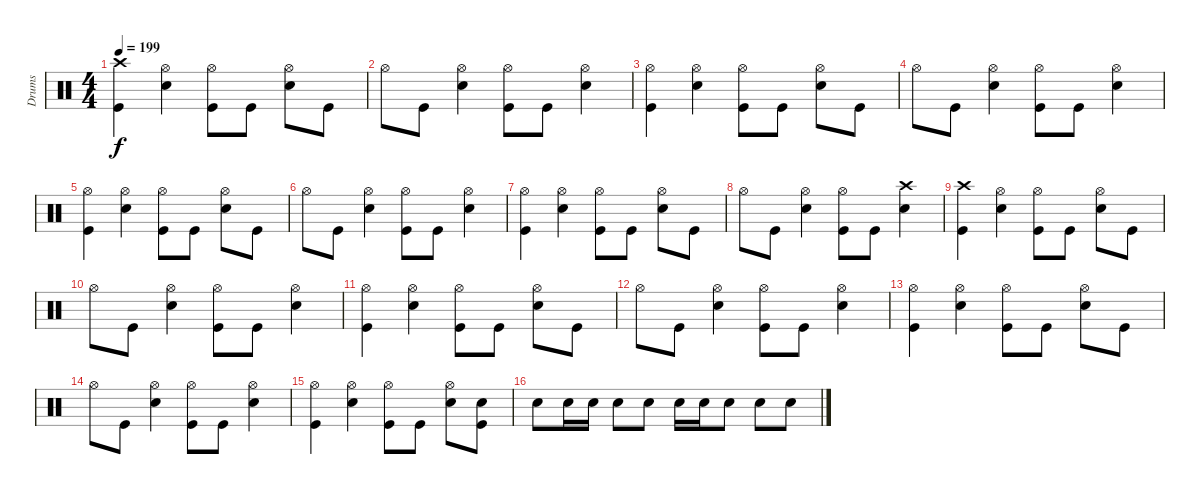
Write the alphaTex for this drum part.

\track ("Drums" "Drums") {instrument percussion}
\staff {score}
\articulation defaults
\ts (4 4)
\tempo 199
\clef neutral
\ks c
("Kick (hit)" "Crash high (hit)").4{dy f} ("Hi-Hat (open)" "Snare (hit) 2").4 ("Hi-Hat (open)" "Kick (hit)").8 "Kick (hit)".8 ("Hi-Hat (open)" "Snare (hit) 2").8 "Kick (hit)".8 |
"Hi-Hat (open)".8 "Kick (hit)".8 ("Hi-Hat (open)" "Snare (hit) 2").4 ("Hi-Hat (open)" "Kick (hit)").8 "Kick (hit)".8 ("Hi-Hat (open)" "Snare (hit) 2").4 |
("Kick (hit)" "Hi-Hat (open)").4 ("Hi-Hat (open)" "Snare (hit) 2").4 ("Hi-Hat (open)" "Kick (hit)").8 "Kick (hit)".8 ("Hi-Hat (open)" "Snare (hit) 2").8 "Kick (hit)".8 |
"Hi-Hat (open)".8 "Kick (hit)".8 ("Hi-Hat (open)" "Snare (hit) 2").4 ("Hi-Hat (open)" "Kick (hit)").8 "Kick (hit)".8 ("Hi-Hat (open)" "Snare (hit) 2").4 |
("Kick (hit)" "Hi-Hat (open)").4 ("Hi-Hat (open)" "Snare (hit) 2").4 ("Hi-Hat (open)" "Kick (hit)").8 "Kick (hit)".8 ("Hi-Hat (open)" "Snare (hit) 2").8 "Kick (hit)".8 |
"Hi-Hat (open)".8 "Kick (hit)".8 ("Hi-Hat (open)" "Snare (hit) 2").4 ("Hi-Hat (open)" "Kick (hit)").8 "Kick (hit)".8 ("Hi-Hat (open)" "Snare (hit) 2").4 |
("Kick (hit)" "Hi-Hat (open)").4 ("Hi-Hat (open)" "Snare (hit) 2").4 ("Hi-Hat (open)" "Kick (hit)").8 "Kick (hit)".8 ("Hi-Hat (open)" "Snare (hit) 2").8 "Kick (hit)".8 |
"Hi-Hat (open)".8 "Kick (hit)".8 ("Hi-Hat (open)" "Snare (hit) 2").4 ("Hi-Hat (open)" "Kick (hit)").8 "Kick (hit)".8 ("Snare (hit) 2" "Crash high (hit)").4 |
("Kick (hit)" "Crash high (hit)").4 ("Hi-Hat (open)" "Snare (hit) 2").4 ("Hi-Hat (open)" "Kick (hit)").8 "Kick (hit)".8 ("Hi-Hat (open)" "Snare (hit) 2").8 "Kick (hit)".8 |
"Hi-Hat (open)".8 "Kick (hit)".8 ("Hi-Hat (open)" "Snare (hit) 2").4 ("Hi-Hat (open)" "Kick (hit)").8 "Kick (hit)".8 ("Hi-Hat (open)" "Snare (hit) 2").4 |
("Kick (hit)" "Hi-Hat (open)").4 ("Hi-Hat (open)" "Snare (hit) 2").4 ("Hi-Hat (open)" "Kick (hit)").8 "Kick (hit)".8 ("Hi-Hat (open)" "Snare (hit) 2").8 "Kick (hit)".8 |
"Hi-Hat (open)".8 "Kick (hit)".8 ("Hi-Hat (open)" "Snare (hit) 2").4 ("Hi-Hat (open)" "Kick (hit)").8 "Kick (hit)".8 ("Hi-Hat (open)" "Snare (hit) 2").4 |
("Kick (hit)" "Hi-Hat (open)").4 ("Hi-Hat (open)" "Snare (hit) 2").4 ("Hi-Hat (open)" "Kick (hit)").8 "Kick (hit)".8 ("Hi-Hat (open)" "Snare (hit) 2").8 "Kick (hit)".8 |
"Hi-Hat (open)".8 "Kick (hit)".8 ("Hi-Hat (open)" "Snare (hit) 2").4 ("Hi-Hat (open)" "Kick (hit)").8 "Kick (hit)".8 ("Hi-Hat (open)" "Snare (hit) 2").4 |
("Kick (hit)" "Hi-Hat (open)").4 ("Hi-Hat (open)" "Snare (hit) 2").4 ("Hi-Hat (open)" "Kick (hit)").8 "Kick (hit)".8 ("Hi-Hat (open)" "Snare (hit) 2").8 ("Snare (hit) 2" "Kick (hit)").8 |
"Snare (hit) 2".8 "Snare (hit) 2".16 "Snare (hit) 2".16 "Snare (hit) 2".8 "Snare (hit) 2".8 "Snare (hit) 2".16 "Snare (hit) 2".16 "Snare (hit) 2".8 "Snare (hit) 2".8 "Snare (hit) 2".8
